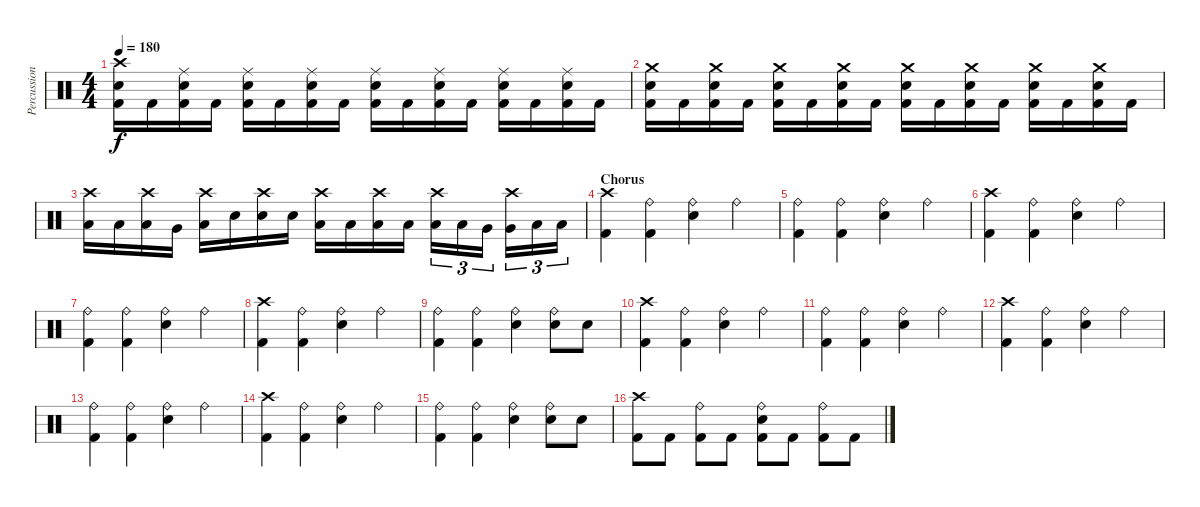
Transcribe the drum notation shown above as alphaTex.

\track ("Percussion" "Percussion") {instrument percussion}
\staff {score}
\articulation defaults
\ts (4 4)
\tempo 180
\clef neutral
\ks c
("Crash high (hit)" "Snare (hit) 2" "Kick (hit) 2").16{dy f} "Kick (hit) 2".16 ("Ride (middle)" "Snare (hit) 2" "Kick (hit) 2").16 "Kick (hit) 2".16 ("Ride (middle)" "Snare (hit) 2" "Kick (hit) 2").16 "Kick (hit) 2".16 ("Ride (middle)" "Snare (hit) 2" "Kick (hit) 2").16 "Kick (hit) 2".16 ("Ride (middle)" "Snare (hit) 2" "Kick (hit) 2").16 "Kick (hit) 2".16 ("Ride (middle)" "Snare (hit) 2" "Kick (hit) 2").16 "Kick (hit) 2".16 ("Ride (middle)" "Snare (hit) 2" "Kick (hit) 2").16 "Kick (hit) 2".16 ("Ride (middle)" "Snare (hit) 2" "Kick (hit) 2").16 "Kick (hit) 2".16 |
("Crash medium (hit)" "Snare (hit) 2" "Kick (hit) 2").16 "Kick (hit) 2".16 ("Crash medium (hit)" "Snare (hit) 2" "Kick (hit) 2").16 "Kick (hit) 2".16 ("Crash medium (hit)" "Snare (hit) 2" "Kick (hit) 2").16 "Kick (hit) 2".16 ("Crash medium (hit)" "Snare (hit) 2" "Kick (hit) 2").16 "Kick (hit) 2".16 ("Crash medium (hit)" "Snare (hit) 2" "Kick (hit) 2").16 "Kick (hit) 2".16 ("Crash medium (hit)" "Snare (hit) 2" "Kick (hit) 2").16 "Kick (hit) 2".16 ("Crash medium (hit)" "Snare (hit) 2" "Kick (hit) 2").16 "Kick (hit) 2".16 ("Crash medium (hit)" "Snare (hit) 2" "Kick (hit) 2").16 "Kick (hit) 2".16 |
("Crash high (hit)" "Low Tom (hit)").16 "Low Tom (hit)".16 ("Crash high (hit)" "Low Floor Tom (hit)").16 "Very Low Tom (hit)".16 ("Crash high (hit)" "Low Tom (hit)").16 "Snare (hit) 2".16 ("Crash high (hit)" "Snare (hit) 2").16 "Snare (hit) 2".16 ("Crash high (hit)" "Low Floor Tom (hit)").16 "Low Floor Tom (hit)".16 ("Crash high (hit)" "Low Tom (hit)").16 "Low Tom (hit)".16 ("Crash high (hit)" "Low Tom (hit)").16{tu (3 2)} "Low Tom (hit)".16{tu (3 2)} "Very Low Tom (hit)".16{tu (3 2)} ("Crash high (hit)" "Very Low Tom (hit)").16{tu (3 2)} "Low Floor Tom (hit)".16{tu (3 2)} "Low Floor Tom (hit)".16{tu (3 2)} |
\section ("" "Chorus")
("Crash high (hit)" "Kick (hit) 2").4 ("Ride (bell)" "Kick (hit) 2").4 ("Ride (bell)" "Snare (hit) 2").4 "Ride (bell)".4 |
("Ride (bell)" "Kick (hit) 2").4 ("Ride (bell)" "Kick (hit) 2").4 ("Ride (bell)" "Snare (hit) 2").4 "Ride (bell)".4 |
("Crash high (hit)" "Kick (hit) 2").4 ("Ride (bell)" "Kick (hit) 2").4 ("Ride (bell)" "Snare (hit) 2").4 "Ride (bell)".4 |
("Ride (bell)" "Kick (hit) 2").4 ("Ride (bell)" "Kick (hit) 2").4 ("Ride (bell)" "Snare (hit) 2").4 "Ride (bell)".4 |
("Crash high (hit)" "Kick (hit) 2").4 ("Ride (bell)" "Kick (hit) 2").4 ("Ride (bell)" "Snare (hit) 2").4 "Ride (bell)".4 |
("Ride (bell)" "Kick (hit) 2").4 ("Ride (bell)" "Kick (hit) 2").4 ("Ride (bell)" "Snare (hit) 2").4 ("Ride (bell)" "Snare (hit) 2").8 "Snare (hit) 2".8 |
("Crash high (hit)" "Kick (hit) 2").4 ("Ride (bell)" "Kick (hit) 2").4 ("Ride (bell)" "Snare (hit) 2").4 "Ride (bell)".4 |
("Ride (bell)" "Kick (hit) 2").4 ("Ride (bell)" "Kick (hit) 2").4 ("Ride (bell)" "Snare (hit) 2").4 "Ride (bell)".4 |
("Crash high (hit)" "Kick (hit) 2").4 ("Ride (bell)" "Kick (hit) 2").4 ("Ride (bell)" "Snare (hit) 2").4 "Ride (bell)".4 |
("Ride (bell)" "Kick (hit) 2").4 ("Ride (bell)" "Kick (hit) 2").4 ("Ride (bell)" "Snare (hit) 2").4 "Ride (bell)".4 |
("Crash high (hit)" "Kick (hit) 2").4 ("Ride (bell)" "Kick (hit) 2").4 ("Ride (bell)" "Snare (hit) 2").4 "Ride (bell)".4 |
("Ride (bell)" "Kick (hit) 2").4 ("Ride (bell)" "Kick (hit) 2").4 ("Ride (bell)" "Snare (hit) 2").4 ("Ride (bell)" "Snare (hit) 2").8 "Snare (hit) 2".8 |
("Crash high (hit)" "Kick (hit) 2").8 "Kick (hit) 2".8 ("Ride (bell)" "Kick (hit) 2").8 "Kick (hit) 2".8 ("Ride (bell)" "Snare (hit) 2" "Kick (hit) 2").8 "Kick (hit) 2".8 ("Ride (bell)" "Kick (hit) 2").8 "Kick (hit) 2".8
